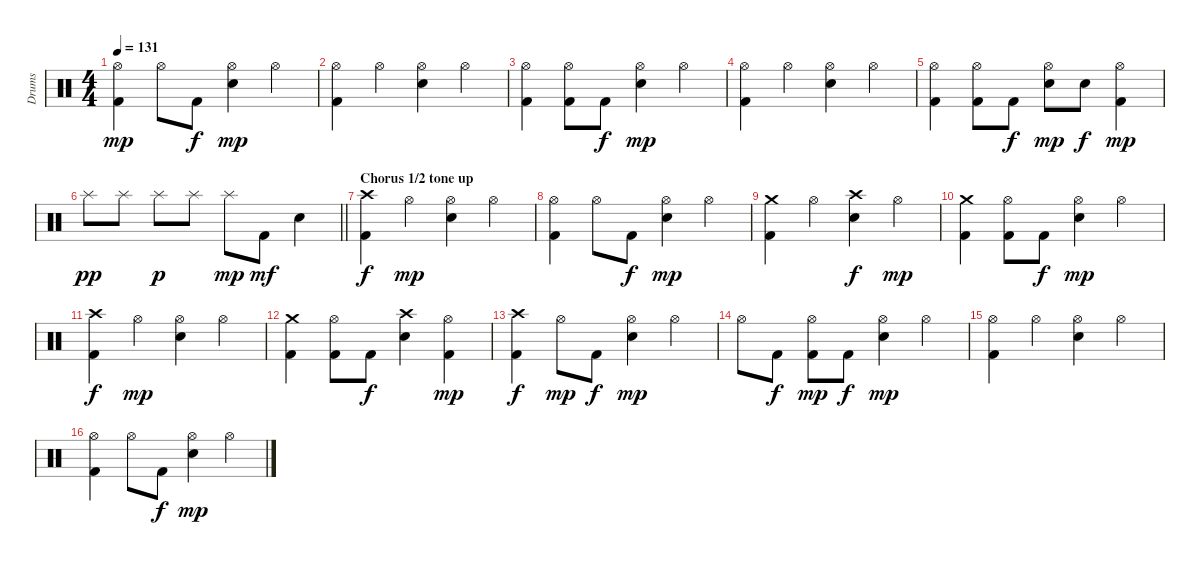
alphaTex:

\track ("Drums" "Drums") {instrument percussion}
\staff {score}
\articulation defaults
\ts (4 4)
\tempo 131
\clef neutral
\ks c
("Hi-Hat (open)" "Kick (hit) 2").4{dy mp} "Hi-Hat (open)".8 "Kick (hit) 2".8{dy f} ("Hi-Hat (open)" "Electric Snare (hit)").4{dy mp} "Hi-Hat (open)".4 |
("Hi-Hat (open)" "Kick (hit) 2").4 "Hi-Hat (open)".4 ("Hi-Hat (open)" "Electric Snare (hit)").4 "Hi-Hat (open)".4 |
("Hi-Hat (open)" "Kick (hit) 2").4 ("Hi-Hat (open)" "Kick (hit) 2").8 "Kick (hit) 2".8{dy f} ("Hi-Hat (open)" "Electric Snare (hit)").4{dy mp} "Hi-Hat (open)".4 |
("Hi-Hat (open)" "Kick (hit) 2").4 "Hi-Hat (open)".4 ("Hi-Hat (open)" "Electric Snare (hit)").4 "Hi-Hat (open)".4 |
("Hi-Hat (open)" "Kick (hit) 2").4 ("Hi-Hat (open)" "Kick (hit) 2").8 "Kick (hit) 2".8{dy f} ("Hi-Hat (open)" "Electric Snare (hit)").8{dy mp} "Electric Snare (hit)".8{dy f} ("Hi-Hat (open)" "Kick (hit) 2").4{dy mp} |
\barLineRight lightlight "Splash (hit)".8{dy pp} "Splash (hit)".8 "Splash (hit)".8{dy p} "Splash (hit)".8 "Splash (hit)".8{dy mp} "Kick (hit) 2".8{dy mf} "Electric Snare (hit)".4
|
\section ("" "Chorus 1/2 tone up")
("Crash high (hit)" "Kick (hit) 2").4{dy f} "Hi-Hat (open)".4{dy mp} ("Hi-Hat (open)" "Electric Snare (hit)").4 "Hi-Hat (open)".4 |
("Hi-Hat (open)" "Kick (hit) 2").4 "Hi-Hat (open)".8 "Kick (hit) 2".8{dy f} ("Hi-Hat (open)" "Electric Snare (hit)").4{dy mp} "Hi-Hat (open)".4 |
("Crash medium (hit)" "Kick (hit) 2").4 "Hi-Hat (open)".4 ("Crash high (hit)" "Electric Snare (hit)").4{dy f} "Hi-Hat (open)".4{dy mp} |
("Crash medium (hit)" "Kick (hit) 2").4 ("Hi-Hat (open)" "Kick (hit) 2").8 "Kick (hit) 2".8{dy f} ("Hi-Hat (open)" "Electric Snare (hit)").4{dy mp} "Hi-Hat (open)".4 |
("Crash high (hit)" "Kick (hit) 2").4{dy f} "Hi-Hat (open)".4{dy mp} ("Hi-Hat (open)" "Electric Snare (hit)").4 "Hi-Hat (open)".4 |
("Crash medium (hit)" "Kick (hit) 2").4 ("Hi-Hat (open)" "Kick (hit) 2").8 "Kick (hit) 2".8{dy f} ("Crash high (hit)" "Electric Snare (hit)").4 ("Hi-Hat (open)" "Kick (hit) 2").4{dy mp} |
("Crash high (hit)" "Kick (hit) 2").4{dy f} "Hi-Hat (open)".8{dy mp} "Kick (hit) 2".8{dy f} ("Hi-Hat (open)" "Electric Snare (hit)").4{dy mp} "Hi-Hat (open)".4 |
"Hi-Hat (open)".8 "Kick (hit) 2".8{dy f} ("Hi-Hat (open)" "Kick (hit) 2").8{dy mp} "Kick (hit) 2".8{dy f} ("Hi-Hat (open)" "Electric Snare (hit)").4{dy mp} "Hi-Hat (open)".4 |
("Hi-Hat (open)" "Kick (hit) 2").4 "Hi-Hat (open)".4 ("Hi-Hat (open)" "Electric Snare (hit)").4 "Hi-Hat (open)".4 |
("Hi-Hat (open)" "Kick (hit) 2").4 "Hi-Hat (open)".8 "Kick (hit) 2".8{dy f} ("Hi-Hat (open)" "Electric Snare (hit)").4{dy mp} "Hi-Hat (open)".4
